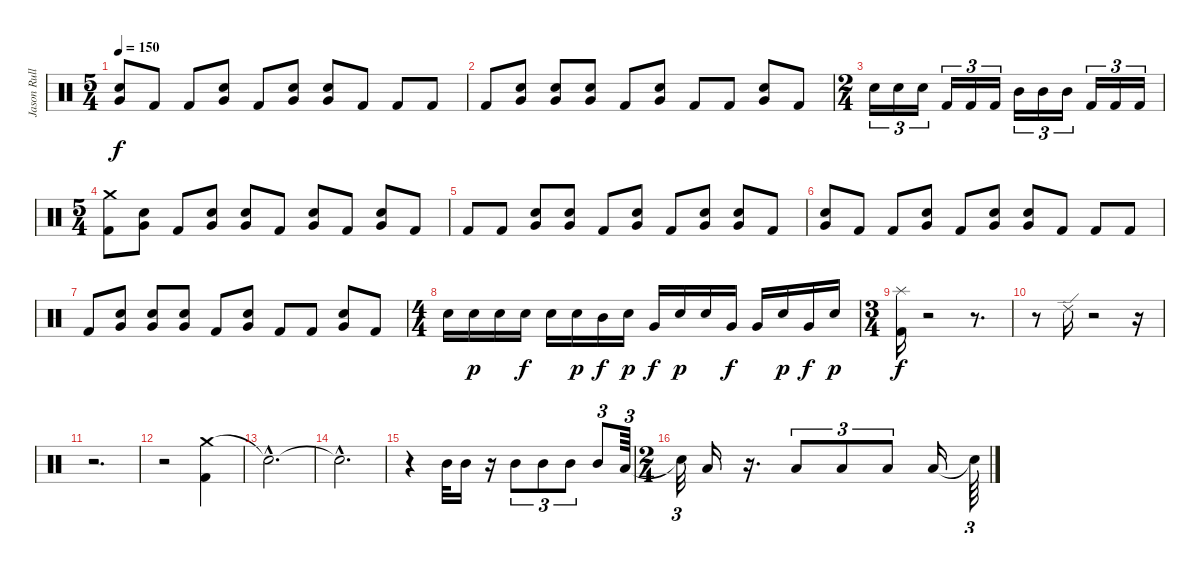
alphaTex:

\track ("Jason Rullo" "Jason Rull") {instrument percussion}
\staff {score}
\articulation defaults
\ts (5 4)
\tempo 150
\clef neutral
\ks c
("Very Low Tom (hit)" "Electric Snare (hit)").8{dy f} "Kick (hit) 2".8 "Kick (hit) 2".8 ("Very Low Tom (hit)" "Electric Snare (hit)").8 "Kick (hit) 2".8 ("Very Low Tom (hit)" "Electric Snare (hit)").8 ("Very Low Tom (hit)" "Electric Snare (hit)").8 "Kick (hit) 2".8 "Kick (hit) 2".8 "Kick (hit) 2".8 |
"Kick (hit) 2".8 ("Very Low Tom (hit)" "Electric Snare (hit)").8 ("Very Low Tom (hit)" "Electric Snare (hit)").8 ("Very Low Tom (hit)" "Electric Snare (hit)").8 "Kick (hit) 2".8 ("Very Low Tom (hit)" "Electric Snare (hit)").8 "Kick (hit) 2".8 "Kick (hit) 2".8 ("Very Low Tom (hit)" "Electric Snare (hit)").8 "Kick (hit) 2".8 |
\ts (2 4)
"Electric Snare (hit)".16{tu (3 2)} "Electric Snare (hit)".16{tu (3 2)} "Electric Snare (hit)".16{tu (3 2)} "Kick (hit) 2".16{tu (3 2)} "Kick (hit) 2".16{tu (3 2)} "Kick (hit) 2".16{tu (3 2)} "Mid Tom (hit)".16{tu (3 2)} "Mid Tom (hit)".16{tu (3 2)} "Mid Tom (hit)".16{tu (3 2)} "Kick (hit) 2".16{tu (3 2)} "Kick (hit) 2".16{tu (3 2)} "Kick (hit) 2".16{tu (3 2)} |
\ts (5 4)
("Crash medium (hit)" "Kick (hit) 2").8 ("Very Low Tom (hit)" "Electric Snare (hit)").8 "Kick (hit) 2".8 ("Very Low Tom (hit)" "Electric Snare (hit)").8 ("Very Low Tom (hit)" "Electric Snare (hit)").8 "Kick (hit) 2".8 ("Very Low Tom (hit)" "Electric Snare (hit)").8 "Kick (hit) 2".8 ("Very Low Tom (hit)" "Electric Snare (hit)").8 "Kick (hit) 2".8 |
"Kick (hit) 2".8 "Kick (hit) 2".8 ("Very Low Tom (hit)" "Electric Snare (hit)").8 ("Very Low Tom (hit)" "Electric Snare (hit)").8 "Kick (hit) 2".8 ("Very Low Tom (hit)" "Electric Snare (hit)").8 "Kick (hit) 2".8 ("Very Low Tom (hit)" "Electric Snare (hit)").8 ("Very Low Tom (hit)" "Electric Snare (hit)").8 "Kick (hit) 2".8 |
("Very Low Tom (hit)" "Electric Snare (hit)").8 "Kick (hit) 2".8 "Kick (hit) 2".8 ("Very Low Tom (hit)" "Electric Snare (hit)").8 "Kick (hit) 2".8 ("Very Low Tom (hit)" "Electric Snare (hit)").8 ("Very Low Tom (hit)" "Electric Snare (hit)").8 "Kick (hit) 2".8 "Kick (hit) 2".8 "Kick (hit) 2".8 |
"Kick (hit) 2".8 ("Very Low Tom (hit)" "Electric Snare (hit)").8 ("Very Low Tom (hit)" "Electric Snare (hit)").8 ("Very Low Tom (hit)" "Electric Snare (hit)").8 "Kick (hit) 2".8 ("Very Low Tom (hit)" "Electric Snare (hit)").8 "Kick (hit) 2".8 "Kick (hit) 2".8 ("Very Low Tom (hit)" "Electric Snare (hit)").8 "Kick (hit) 2".8 |
\ts (4 4)
"Electric Snare (hit)".16 "Electric Snare (hit)".16{dy p} "Electric Snare (hit)".16 "Electric Snare (hit)".16{dy f} "Electric Snare (hit)".16 "Electric Snare (hit)".16{dy p} "Mid Tom (hit)".16{dy f} "Electric Snare (hit)".16{dy p} "Very Low Tom (hit)".16{dy f} "Electric Snare (hit)".16{dy p} "Electric Snare (hit)".16 "Very Low Tom (hit)".16{dy f} "Very Low Tom (hit)".16 "Electric Snare (hit)".16{dy p} "Very Low Tom (hit)".16{dy f} "Electric Snare (hit)".16{dy p} |
\ts (3 4)
("Splash (hit)" "Kick (hit) 2").16{dy f} r.2 r.8{d} |
r.8 "Ride (edge) 2".16 r.2 r.16 |
r.2{d} |
r.2 ("Crash medium (hit)" "Kick (hit) 2").4 |
"Snare (hit)"{hac t}.2{d} |
"Snare (hit)"{hac t}.2{d} |
r.4 "Mid Tom (hit)".32 "Mid Tom (hit)".16 r.16 "Mid Tom (hit)".8{tu (3 2)} "Mid Tom (hit)".8{tu (3 2)} "Mid Tom (hit)".8{tu (3 2)} "Mid Tom (hit)".8{tu (3 2)} "Low Tom (hit)".64{tu (3 2)} |
\ts (2 4)
"Snare (hit)"{t}.32{tu (3 2)} "Low Tom (hit)".16 r.16{d} "Low Tom (hit)".8{tu (3 2)} "Low Tom (hit)".8{tu (3 2)} "Low Tom (hit)".8{tu (3 2)} "Low Tom (hit)".16 "Snare (hit)"{t}.64{tu (3 2)}
